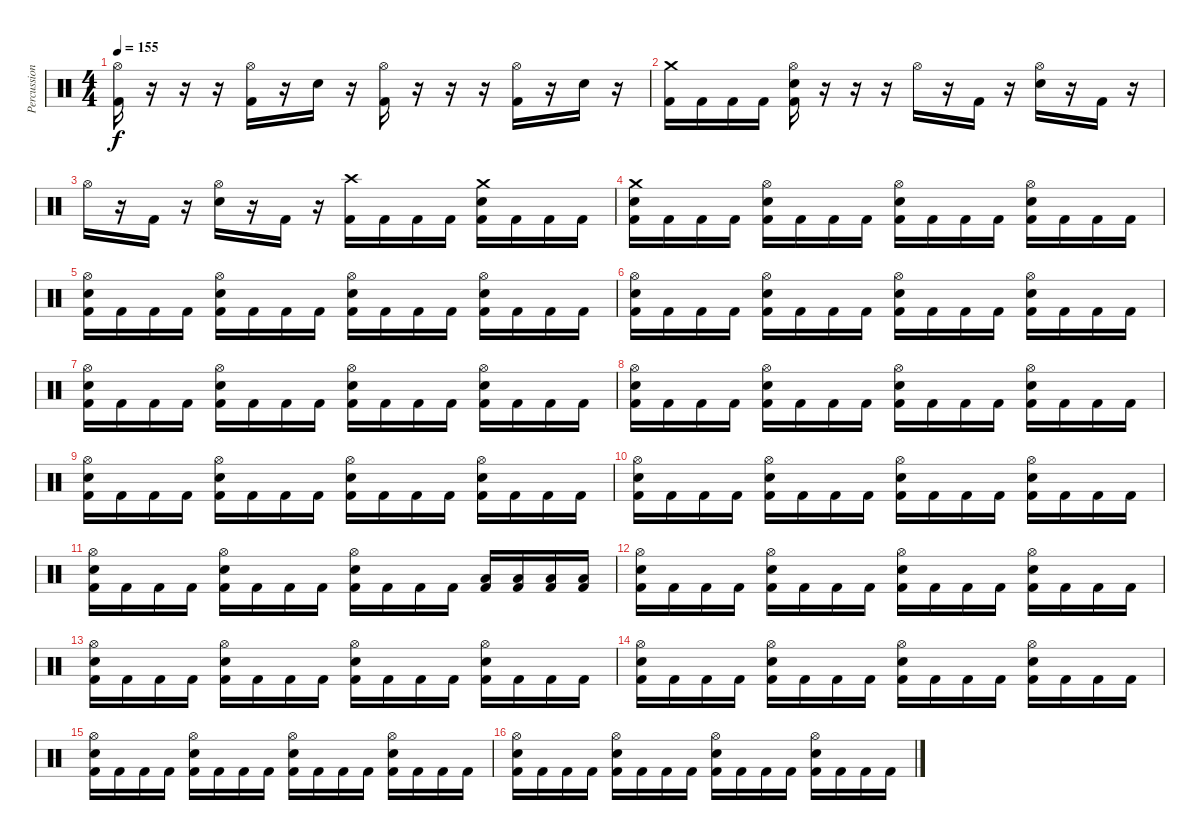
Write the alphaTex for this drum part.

\track ("Percussion" "Percussion") {instrument percussion}
\staff {score}
\articulation defaults
\ts (4 4)
\tempo 155
\clef neutral
\ks c
("Hi-Hat (open)" "Kick (hit) 2").16{dy f} r.16 r.16 r.16 ("Hi-Hat (open)" "Kick (hit) 2").16 r.16 "Snare (hit) 2".16 r.16 ("Hi-Hat (open)" "Kick (hit) 2").16 r.16 r.16 r.16 ("Hi-Hat (open)" "Kick (hit) 2").16 r.16 "Snare (hit) 2".16 r.16 |
("Crash medium (hit)" "Kick (hit) 2").16 "Kick (hit) 2".16 "Kick (hit) 2".16 "Kick (hit) 2".16 ("Hi-Hat (open)" "Snare (hit) 2" "Kick (hit) 2").16 r.16 r.16 r.16 "Hi-Hat (open)".16 r.16 "Kick (hit) 2".16 r.16 ("Hi-Hat (open)" "Snare (hit) 2").16 r.16 "Kick (hit) 2".16 r.16 |
"Hi-Hat (open)".16 r.16 "Kick (hit) 2".16 r.16 ("Hi-Hat (open)" "Snare (hit) 2").16 r.16 "Kick (hit) 2".16 r.16 ("Crash high (hit)" "Kick (hit) 2").16 "Kick (hit) 2".16 "Kick (hit) 2".16 "Kick (hit) 2".16 ("Crash medium (hit)" "Snare (hit) 2" "Kick (hit) 2").16 "Kick (hit) 2".16 "Kick (hit) 2".16 "Kick (hit) 2".16 |
("Crash medium (hit)" "Snare (hit) 2" "Kick (hit) 2").16 "Kick (hit) 2".16 "Kick (hit) 2".16 "Kick (hit) 2".16 ("Hi-Hat (open)" "Snare (hit) 2" "Kick (hit) 2").16 "Kick (hit) 2".16 "Kick (hit) 2".16 "Kick (hit) 2".16 ("Hi-Hat (open)" "Snare (hit) 2" "Kick (hit) 2").16 "Kick (hit) 2".16 "Kick (hit) 2".16 "Kick (hit) 2".16 ("Hi-Hat (open)" "Snare (hit) 2" "Kick (hit) 2").16 "Kick (hit) 2".16 "Kick (hit) 2".16 "Kick (hit) 2".16 |
("Hi-Hat (open)" "Snare (hit) 2" "Kick (hit) 2").16 "Kick (hit) 2".16 "Kick (hit) 2".16 "Kick (hit) 2".16 ("Hi-Hat (open)" "Snare (hit) 2" "Kick (hit) 2").16 "Kick (hit) 2".16 "Kick (hit) 2".16 "Kick (hit) 2".16 ("Hi-Hat (open)" "Snare (hit) 2" "Kick (hit) 2").16 "Kick (hit) 2".16 "Kick (hit) 2".16 "Kick (hit) 2".16 ("Hi-Hat (open)" "Snare (hit) 2" "Kick (hit) 2").16 "Kick (hit) 2".16 "Kick (hit) 2".16 "Kick (hit) 2".16 |
("Hi-Hat (open)" "Snare (hit) 2" "Kick (hit) 2").16 "Kick (hit) 2".16 "Kick (hit) 2".16 "Kick (hit) 2".16 ("Hi-Hat (open)" "Snare (hit) 2" "Kick (hit) 2").16 "Kick (hit) 2".16 "Kick (hit) 2".16 "Kick (hit) 2".16 ("Hi-Hat (open)" "Snare (hit) 2" "Kick (hit) 2").16 "Kick (hit) 2".16 "Kick (hit) 2".16 "Kick (hit) 2".16 ("Hi-Hat (open)" "Snare (hit) 2" "Kick (hit) 2").16 "Kick (hit) 2".16 "Kick (hit) 2".16 "Kick (hit) 2".16 |
("Hi-Hat (open)" "Snare (hit) 2" "Kick (hit) 2").16 "Kick (hit) 2".16 "Kick (hit) 2".16 "Kick (hit) 2".16 ("Hi-Hat (open)" "Snare (hit) 2" "Kick (hit) 2").16 "Kick (hit) 2".16 "Kick (hit) 2".16 "Kick (hit) 2".16 ("Hi-Hat (open)" "Snare (hit) 2" "Kick (hit) 2").16 "Kick (hit) 2".16 "Kick (hit) 2".16 "Kick (hit) 2".16 ("Hi-Hat (open)" "Snare (hit) 2" "Kick (hit) 2").16 "Kick (hit) 2".16 "Kick (hit) 2".16 "Kick (hit) 2".16 |
("Hi-Hat (open)" "Snare (hit) 2" "Kick (hit) 2").16 "Kick (hit) 2".16 "Kick (hit) 2".16 "Kick (hit) 2".16 ("Hi-Hat (open)" "Snare (hit) 2" "Kick (hit) 2").16 "Kick (hit) 2".16 "Kick (hit) 2".16 "Kick (hit) 2".16 ("Hi-Hat (open)" "Snare (hit) 2" "Kick (hit) 2").16 "Kick (hit) 2".16 "Kick (hit) 2".16 "Kick (hit) 2".16 ("Hi-Hat (open)" "Snare (hit) 2" "Kick (hit) 2").16 "Kick (hit) 2".16 "Kick (hit) 2".16 "Kick (hit) 2".16 |
("Hi-Hat (open)" "Snare (hit) 2" "Kick (hit) 2").16 "Kick (hit) 2".16 "Kick (hit) 2".16 "Kick (hit) 2".16 ("Hi-Hat (open)" "Snare (hit) 2" "Kick (hit) 2").16 "Kick (hit) 2".16 "Kick (hit) 2".16 "Kick (hit) 2".16 ("Hi-Hat (open)" "Snare (hit) 2" "Kick (hit) 2").16 "Kick (hit) 2".16 "Kick (hit) 2".16 "Kick (hit) 2".16 ("Hi-Hat (open)" "Snare (hit) 2" "Kick (hit) 2").16 "Kick (hit) 2".16 "Kick (hit) 2".16 "Kick (hit) 2".16 |
("Hi-Hat (open)" "Snare (hit) 2" "Kick (hit) 2").16 "Kick (hit) 2".16 "Kick (hit) 2".16 "Kick (hit) 2".16 ("Hi-Hat (open)" "Snare (hit) 2" "Kick (hit) 2").16 "Kick (hit) 2".16 "Kick (hit) 2".16 "Kick (hit) 2".16 ("Hi-Hat (open)" "Snare (hit) 2" "Kick (hit) 2").16 "Kick (hit) 2".16 "Kick (hit) 2".16 "Kick (hit) 2".16 ("Hi-Hat (open)" "Snare (hit) 2" "Kick (hit) 2").16 "Kick (hit) 2".16 "Kick (hit) 2".16 "Kick (hit) 2".16 |
("Hi-Hat (open)" "Snare (hit) 2" "Kick (hit) 2").16 "Kick (hit) 2".16 "Kick (hit) 2".16 "Kick (hit) 2".16 ("Hi-Hat (open)" "Snare (hit) 2" "Kick (hit) 2").16 "Kick (hit) 2".16 "Kick (hit) 2".16 "Kick (hit) 2".16 ("Hi-Hat (open)" "Snare (hit) 2" "Kick (hit) 2").16 "Kick (hit) 2".16 "Kick (hit) 2".16 "Kick (hit) 2".16 ("Low Floor Tom (hit)" "Kick (hit) 2").16 ("Low Floor Tom (hit)" "Kick (hit) 2").16 ("Low Floor Tom (hit)" "Kick (hit) 2").16 ("Low Floor Tom (hit)" "Kick (hit) 2").16 |
("Hi-Hat (open)" "Snare (hit) 2" "Kick (hit) 2").16 "Kick (hit) 2".16 "Kick (hit) 2".16 "Kick (hit) 2".16 ("Hi-Hat (open)" "Snare (hit) 2" "Kick (hit) 2").16 "Kick (hit) 2".16 "Kick (hit) 2".16 "Kick (hit) 2".16 ("Hi-Hat (open)" "Snare (hit) 2" "Kick (hit) 2").16 "Kick (hit) 2".16 "Kick (hit) 2".16 "Kick (hit) 2".16 ("Hi-Hat (open)" "Snare (hit) 2" "Kick (hit) 2").16 "Kick (hit) 2".16 "Kick (hit) 2".16 "Kick (hit) 2".16 |
("Hi-Hat (open)" "Snare (hit) 2" "Kick (hit) 2").16 "Kick (hit) 2".16 "Kick (hit) 2".16 "Kick (hit) 2".16 ("Hi-Hat (open)" "Snare (hit) 2" "Kick (hit) 2").16 "Kick (hit) 2".16 "Kick (hit) 2".16 "Kick (hit) 2".16 ("Hi-Hat (open)" "Snare (hit) 2" "Kick (hit) 2").16 "Kick (hit) 2".16 "Kick (hit) 2".16 "Kick (hit) 2".16 ("Hi-Hat (open)" "Snare (hit) 2" "Kick (hit) 2").16 "Kick (hit) 2".16 "Kick (hit) 2".16 "Kick (hit) 2".16 |
("Hi-Hat (open)" "Snare (hit) 2" "Kick (hit) 2").16 "Kick (hit) 2".16 "Kick (hit) 2".16 "Kick (hit) 2".16 ("Hi-Hat (open)" "Snare (hit) 2" "Kick (hit) 2").16 "Kick (hit) 2".16 "Kick (hit) 2".16 "Kick (hit) 2".16 ("Hi-Hat (open)" "Snare (hit) 2" "Kick (hit) 2").16 "Kick (hit) 2".16 "Kick (hit) 2".16 "Kick (hit) 2".16 ("Hi-Hat (open)" "Snare (hit) 2" "Kick (hit) 2").16 "Kick (hit) 2".16 "Kick (hit) 2".16 "Kick (hit) 2".16 |
("Hi-Hat (open)" "Snare (hit) 2" "Kick (hit) 2").16 "Kick (hit) 2".16 "Kick (hit) 2".16 "Kick (hit) 2".16 ("Hi-Hat (open)" "Snare (hit) 2" "Kick (hit) 2").16 "Kick (hit) 2".16 "Kick (hit) 2".16 "Kick (hit) 2".16 ("Hi-Hat (open)" "Snare (hit) 2" "Kick (hit) 2").16 "Kick (hit) 2".16 "Kick (hit) 2".16 "Kick (hit) 2".16 ("Hi-Hat (open)" "Snare (hit) 2" "Kick (hit) 2").16 "Kick (hit) 2".16 "Kick (hit) 2".16 "Kick (hit) 2".16 |
("Hi-Hat (open)" "Snare (hit) 2" "Kick (hit) 2").16 "Kick (hit) 2".16 "Kick (hit) 2".16 "Kick (hit) 2".16 ("Hi-Hat (open)" "Snare (hit) 2" "Kick (hit) 2").16 "Kick (hit) 2".16 "Kick (hit) 2".16 "Kick (hit) 2".16 ("Hi-Hat (open)" "Snare (hit) 2" "Kick (hit) 2").16 "Kick (hit) 2".16 "Kick (hit) 2".16 "Kick (hit) 2".16 ("Hi-Hat (open)" "Snare (hit) 2" "Kick (hit) 2").16 "Kick (hit) 2".16 "Kick (hit) 2".16 "Kick (hit) 2".16
